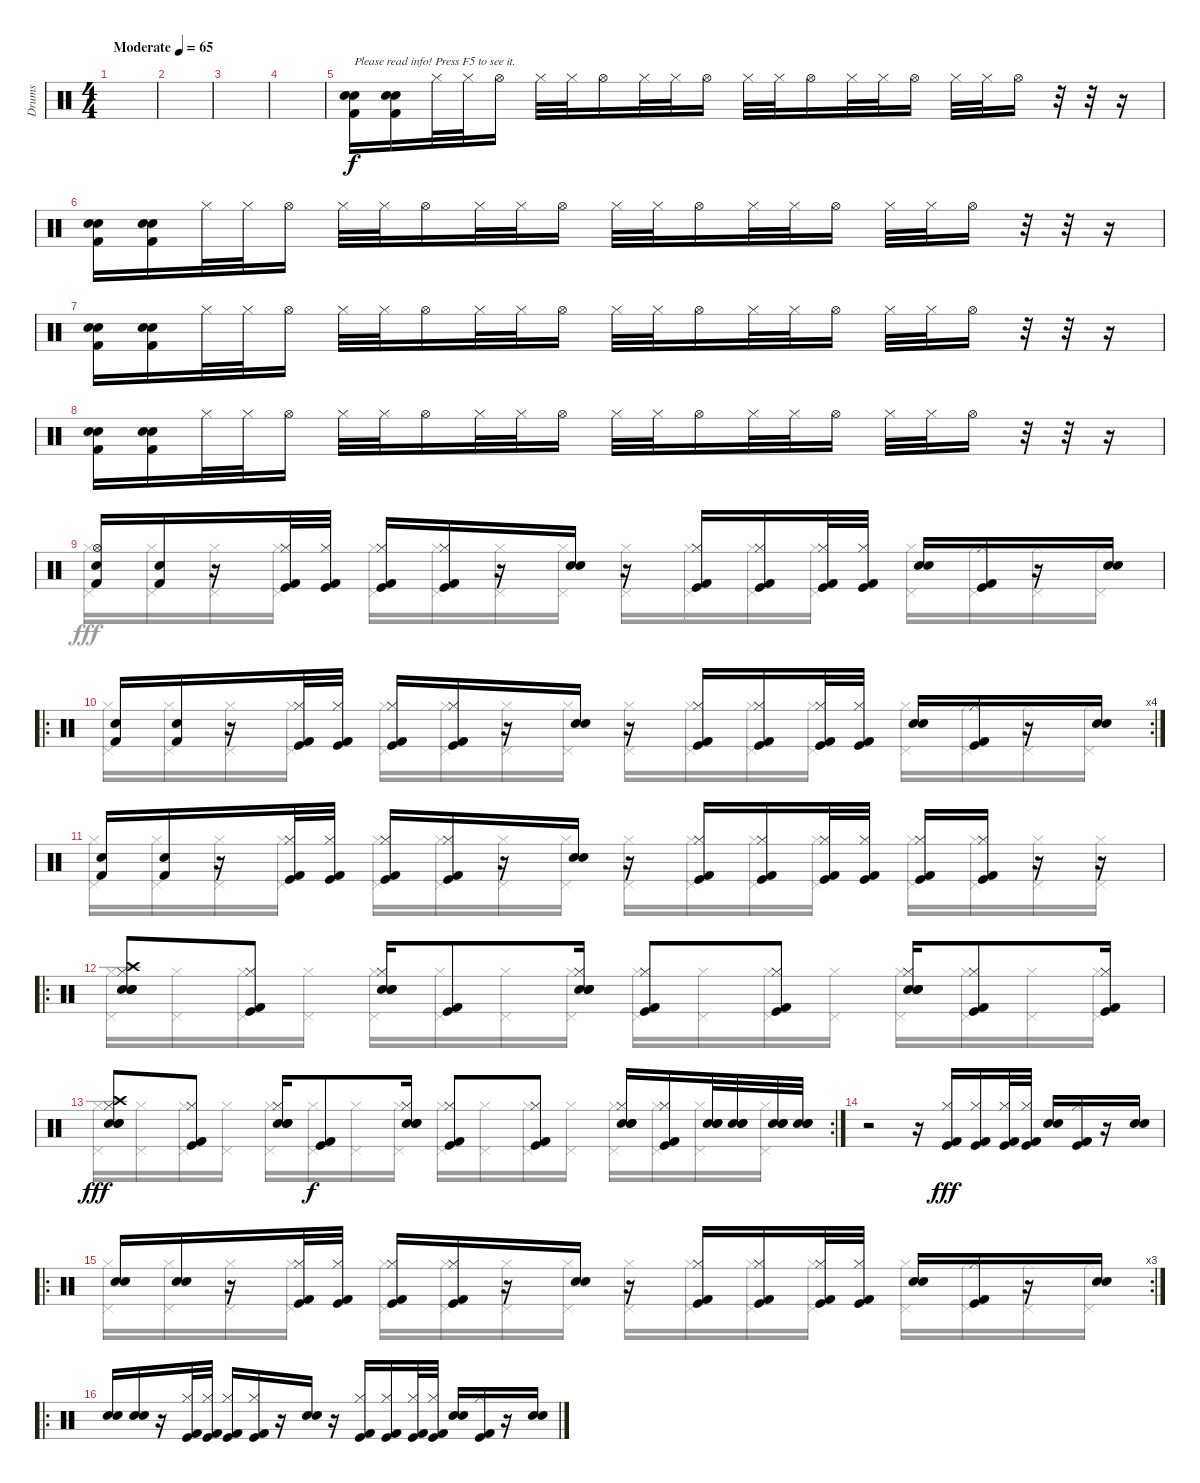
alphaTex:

\track ("Drums" "Drums") {instrument percussion}
\staff {score}
\articulation defaults
\voice
\ts (4 4)
\tempo (65 "Moderate")
\clef neutral
\ks c
|
|
|
|
("Kick (hit) 2" "Electric Snare (hit)" "Snare (hit) 2").16{txt "Please read info! Press F5 to see it."} ("Kick (hit) 2" "Electric Snare (hit)" "Snare (hit) 2").16 "Hi-Hat (closed)".32 "Hi-Hat (closed)".32 "Hi-Hat (open)".16 "Hi-Hat (closed)".32 "Hi-Hat (closed)".32 "Hi-Hat (open)".16 "Hi-Hat (closed)".32 "Hi-Hat (closed)".32 "Hi-Hat (open)".16 "Hi-Hat (closed)".32 "Hi-Hat (closed)".32 "Hi-Hat (open)".16 "Hi-Hat (closed)".32 "Hi-Hat (closed)".32 "Hi-Hat (open)".16 "Hi-Hat (closed)".32 "Hi-Hat (closed)".32 "Hi-Hat (open)".16 r.32 r.32 r.16 |
("Kick (hit) 2" "Electric Snare (hit)" "Snare (hit) 2").16 ("Kick (hit) 2" "Electric Snare (hit)" "Snare (hit) 2").16 "Hi-Hat (closed)".32 "Hi-Hat (closed)".32 "Hi-Hat (open)".16 "Hi-Hat (closed)".32 "Hi-Hat (closed)".32 "Hi-Hat (open)".16 "Hi-Hat (closed)".32 "Hi-Hat (closed)".32 "Hi-Hat (open)".16 "Hi-Hat (closed)".32 "Hi-Hat (closed)".32 "Hi-Hat (open)".16 "Hi-Hat (closed)".32 "Hi-Hat (closed)".32 "Hi-Hat (open)".16 "Hi-Hat (closed)".32 "Hi-Hat (closed)".32 "Hi-Hat (open)".16 r.32 r.32 r.16 |
("Kick (hit) 2" "Electric Snare (hit)" "Snare (hit) 2").16 ("Kick (hit) 2" "Electric Snare (hit)" "Snare (hit) 2").16 "Hi-Hat (closed)".32 "Hi-Hat (closed)".32 "Hi-Hat (open)".16 "Hi-Hat (closed)".32 "Hi-Hat (closed)".32 "Hi-Hat (open)".16 "Hi-Hat (closed)".32 "Hi-Hat (closed)".32 "Hi-Hat (open)".16 "Hi-Hat (closed)".32 "Hi-Hat (closed)".32 "Hi-Hat (open)".16 "Hi-Hat (closed)".32 "Hi-Hat (closed)".32 "Hi-Hat (open)".16 "Hi-Hat (closed)".32 "Hi-Hat (closed)".32 "Hi-Hat (open)".16 r.32 r.32 r.16 |
("Kick (hit) 2" "Electric Snare (hit)" "Snare (hit) 2").16 ("Kick (hit) 2" "Electric Snare (hit)" "Snare (hit) 2").16 "Hi-Hat (closed)".32 "Hi-Hat (closed)".32 "Hi-Hat (open)".16 "Hi-Hat (closed)".32 "Hi-Hat (closed)".32 "Hi-Hat (open)".16 "Hi-Hat (closed)".32 "Hi-Hat (closed)".32 "Hi-Hat (open)".16 "Hi-Hat (closed)".32 "Hi-Hat (closed)".32 "Hi-Hat (open)".16 "Hi-Hat (closed)".32 "Hi-Hat (closed)".32 "Hi-Hat (open)".16 "Hi-Hat (closed)".32 "Hi-Hat (closed)".32 "Hi-Hat (open)".16 r.32 r.32 r.16 |
("Kick (hit) 2" "Electric Snare (hit)" "Hi-Hat (open)").16 ("Kick (hit) 2" "Electric Snare (hit)").16 r.16 ("Hi-Hat (closed)" "Kick (hit)" "Kick (hit) 2").32 ("Hi-Hat (closed)" "Kick (hit)" "Kick (hit) 2").32 ("Hi-Hat (closed)" "Kick (hit)" "Kick (hit) 2").16 ("Hi-Hat (closed)" "Kick (hit)" "Kick (hit) 2").16 r.16 ("Snare (hit) 2" "Electric Snare (hit)").16 r.16 ("Hi-Hat (closed)" "Kick (hit)" "Kick (hit) 2").16 ("Hi-Hat (closed)" "Kick (hit)" "Kick (hit) 2").16 ("Hi-Hat (closed)" "Kick (hit)" "Kick (hit) 2").32 ("Hi-Hat (closed)" "Kick (hit)" "Kick (hit) 2").32 ("Snare (hit) 2" "Electric Snare (hit)").16 ("Hi-Hat (closed)" "Kick (hit)" "Kick (hit) 2").16 r.16 ("Snare (hit) 2" "Electric Snare (hit)").16 |
\ro
\rc 4
("Kick (hit) 2" "Electric Snare (hit)").16 ("Kick (hit) 2" "Electric Snare (hit)").16 r.16 ("Hi-Hat (closed)" "Kick (hit)" "Kick (hit) 2").32 ("Hi-Hat (closed)" "Kick (hit)" "Kick (hit) 2").32 ("Hi-Hat (closed)" "Kick (hit)" "Kick (hit) 2").16 ("Hi-Hat (closed)" "Kick (hit)" "Kick (hit) 2").16 r.16 ("Snare (hit) 2" "Electric Snare (hit)").16 r.16 ("Hi-Hat (closed)" "Kick (hit)" "Kick (hit) 2").16 ("Hi-Hat (closed)" "Kick (hit)" "Kick (hit) 2").16 ("Hi-Hat (closed)" "Kick (hit)" "Kick (hit) 2").32 ("Hi-Hat (closed)" "Kick (hit)" "Kick (hit) 2").32 ("Snare (hit) 2" "Electric Snare (hit)").16 ("Hi-Hat (closed)" "Kick (hit)" "Kick (hit) 2").16 r.16 ("Snare (hit) 2" "Electric Snare (hit)").16 |
("Kick (hit) 2" "Electric Snare (hit)").16 ("Kick (hit) 2" "Electric Snare (hit)").16 r.16 ("Hi-Hat (closed)" "Kick (hit)" "Kick (hit) 2").32 ("Hi-Hat (closed)" "Kick (hit)" "Kick (hit) 2").32 ("Hi-Hat (closed)" "Kick (hit)" "Kick (hit) 2").16 ("Hi-Hat (closed)" "Kick (hit)" "Kick (hit) 2").16 r.16 ("Snare (hit) 2" "Electric Snare (hit)").16 r.16 ("Hi-Hat (closed)" "Kick (hit)" "Kick (hit) 2").16 ("Hi-Hat (closed)" "Kick (hit)" "Kick (hit) 2").16 ("Hi-Hat (closed)" "Kick (hit)" "Kick (hit) 2").32 ("Hi-Hat (closed)" "Kick (hit)" "Kick (hit) 2").32 ("Hi-Hat (closed)" "Kick (hit)" "Kick (hit) 2").16 ("Hi-Hat (closed)" "Kick (hit)" "Kick (hit) 2").16 r.16 r.16 |
\ro
("Hi-Hat (closed)" "Crash high (hit)" "Hand Clap (hit)" "Electric Snare (hit)" "Snare (hit) 2").8 ("Hi-Hat (closed)" "Kick (hit)" "Kick (hit) 2").8 ("Hi-Hat (closed)" "Hand Clap (hit)" "Electric Snare (hit)" "Snare (hit) 2").16 ("Kick (hit)" "Kick (hit) 2").8{dy f} ("Hi-Hat (closed)" "Hand Clap (hit)" "Electric Snare (hit)" "Snare (hit) 2").16 ("Hi-Hat (closed)" "Kick (hit)" "Kick (hit) 2").8 ("Hi-Hat (closed)" "Kick (hit)" "Kick (hit) 2").8 ("Hi-Hat (closed)" "Hand Clap (hit)" "Electric Snare (hit)" "Snare (hit) 2").16 ("Hi-Hat (closed)" "Kick (hit) 2" "Kick (hit)").8 ("Hi-Hat (closed)" "Kick (hit) 2" "Kick (hit)").16 |
\rc 2
("Hi-Hat (closed)" "Crash high (hit)" "Hand Clap (hit)" "Electric Snare (hit)" "Snare (hit) 2").8{dy fff} ("Hi-Hat (closed)" "Kick (hit)" "Kick (hit) 2").8 ("Hi-Hat (closed)" "Hand Clap (hit)" "Electric Snare (hit)" "Snare (hit) 2").16 ("Kick (hit)" "Kick (hit) 2").8{dy f} ("Hi-Hat (closed)" "Hand Clap (hit)" "Electric Snare (hit)" "Snare (hit) 2").16 ("Hi-Hat (closed)" "Kick (hit)" "Kick (hit) 2").8 ("Hi-Hat (closed)" "Kick (hit)" "Kick (hit) 2").8 ("Hi-Hat (closed)" "Hand Clap (hit)" "Electric Snare (hit)" "Snare (hit) 2").16 ("Hi-Hat (closed)" "Kick (hit) 2" "Kick (hit)").16 ("Hand Clap (hit)" "Electric Snare (hit)" "Snare (hit) 2").32 ("Hand Clap (hit)" "Electric Snare (hit)" "Snare (hit) 2").32 ("Hand Clap (hit)" "Electric Snare (hit)" "Snare (hit) 2").32 ("Hand Clap (hit)" "Electric Snare (hit)" "Snare (hit) 2").32 |
r.2 r.16 ("Hi-Hat (closed)" "Kick (hit)" "Kick (hit) 2").16{dy fff} ("Hi-Hat (closed)" "Kick (hit)" "Kick (hit) 2").16 ("Hi-Hat (closed)" "Kick (hit)" "Kick (hit) 2").32 ("Hi-Hat (closed)" "Kick (hit)" "Kick (hit) 2").32 ("Snare (hit) 2" "Electric Snare (hit)").16 ("Hi-Hat (closed)" "Kick (hit)" "Kick (hit) 2").16 r.16 ("Snare (hit) 2" "Electric Snare (hit)").16 |
\ro
\rc 3
("Snare (hit) 2" "Electric Snare (hit)").16 ("Snare (hit) 2" "Electric Snare (hit)").16 r.16 ("Hi-Hat (closed)" "Kick (hit)" "Kick (hit) 2").32 ("Hi-Hat (closed)" "Kick (hit)" "Kick (hit) 2").32 ("Hi-Hat (closed)" "Kick (hit)" "Kick (hit) 2").16 ("Hi-Hat (closed)" "Kick (hit)" "Kick (hit) 2").16 r.16 ("Snare (hit) 2" "Electric Snare (hit)").16 r.16 ("Hi-Hat (closed)" "Kick (hit)" "Kick (hit) 2").16 ("Hi-Hat (closed)" "Kick (hit)" "Kick (hit) 2").16 ("Hi-Hat (closed)" "Kick (hit)" "Kick (hit) 2").32 ("Hi-Hat (closed)" "Kick (hit)" "Kick (hit) 2").32 ("Snare (hit) 2" "Electric Snare (hit)").16 ("Hi-Hat (closed)" "Kick (hit)" "Kick (hit) 2").16 r.16 ("Snare (hit) 2" "Electric Snare (hit)").16 |
\ro
("Snare (hit) 2" "Electric Snare (hit)").16 ("Snare (hit) 2" "Electric Snare (hit)").16 r.16 ("Hi-Hat (closed)" "Kick (hit)" "Kick (hit) 2").32 ("Hi-Hat (closed)" "Kick (hit)" "Kick (hit) 2").32 ("Hi-Hat (closed)" "Kick (hit)" "Kick (hit) 2").16 ("Hi-Hat (closed)" "Kick (hit)" "Kick (hit) 2").16 r.16 ("Snare (hit) 2" "Electric Snare (hit)").16 r.16 ("Hi-Hat (closed)" "Kick (hit)" "Kick (hit) 2").16 ("Hi-Hat (closed)" "Kick (hit)" "Kick (hit) 2").16 ("Hi-Hat (closed)" "Kick (hit)" "Kick (hit) 2").32 ("Hi-Hat (closed)" "Kick (hit)" "Kick (hit) 2").32 ("Snare (hit) 2" "Electric Snare (hit)").16 ("Hi-Hat (closed)" "Kick (hit)" "Kick (hit) 2").16 r.16 ("Snare (hit) 2" "Electric Snare (hit)").16
\voice
\clef neutral
\ottava regular
\simile none
\ks c
|
|
|
|
|
|
|
|
("Hi-Hat (closed)" "Pedal Hi-Hat (hit)").16 ("Hi-Hat (closed)" "Pedal Hi-Hat (hit)").16 ("Hi-Hat (closed)" "Pedal Hi-Hat (hit)").16 ("Hi-Hat (closed)" "Pedal Hi-Hat (hit)").16 ("Hi-Hat (closed)" "Pedal Hi-Hat (hit)").16 ("Hi-Hat (closed)" "Pedal Hi-Hat (hit)").16 ("Hi-Hat (closed)" "Pedal Hi-Hat (hit)").16 ("Hi-Hat (closed)" "Pedal Hi-Hat (hit)").16 ("Hi-Hat (closed)" "Pedal Hi-Hat (hit)").16 ("Hi-Hat (closed)" "Pedal Hi-Hat (hit)").16 ("Hi-Hat (closed)" "Pedal Hi-Hat (hit)").16 ("Hi-Hat (closed)" "Pedal Hi-Hat (hit)").16 ("Hi-Hat (closed)" "Pedal Hi-Hat (hit)").16 ("Hi-Hat (closed)" "Pedal Hi-Hat (hit)").16 ("Hi-Hat (closed)" "Pedal Hi-Hat (hit)").16 ("Hi-Hat (closed)" "Pedal Hi-Hat (hit)").16 |
("Hi-Hat (closed)" "Pedal Hi-Hat (hit)").16 ("Hi-Hat (closed)" "Pedal Hi-Hat (hit)").16 ("Hi-Hat (closed)" "Pedal Hi-Hat (hit)").16 ("Hi-Hat (closed)" "Pedal Hi-Hat (hit)").16 ("Hi-Hat (closed)" "Pedal Hi-Hat (hit)").16 ("Hi-Hat (closed)" "Pedal Hi-Hat (hit)").16 ("Hi-Hat (closed)" "Pedal Hi-Hat (hit)").16 ("Hi-Hat (closed)" "Pedal Hi-Hat (hit)").16 ("Hi-Hat (closed)" "Pedal Hi-Hat (hit)").16 ("Hi-Hat (closed)" "Pedal Hi-Hat (hit)").16 ("Hi-Hat (closed)" "Pedal Hi-Hat (hit)").16 ("Hi-Hat (closed)" "Pedal Hi-Hat (hit)").16 ("Hi-Hat (closed)" "Pedal Hi-Hat (hit)").16 ("Hi-Hat (closed)" "Pedal Hi-Hat (hit)").16 ("Hi-Hat (closed)" "Pedal Hi-Hat (hit)").16 ("Hi-Hat (closed)" "Pedal Hi-Hat (hit)").16 |
("Hi-Hat (closed)" "Pedal Hi-Hat (hit)").16 ("Hi-Hat (closed)" "Pedal Hi-Hat (hit)").16 ("Hi-Hat (closed)" "Pedal Hi-Hat (hit)").16 ("Hi-Hat (closed)" "Pedal Hi-Hat (hit)").16 ("Hi-Hat (closed)" "Pedal Hi-Hat (hit)").16 ("Hi-Hat (closed)" "Pedal Hi-Hat (hit)").16 ("Hi-Hat (closed)" "Pedal Hi-Hat (hit)").16 ("Hi-Hat (closed)" "Pedal Hi-Hat (hit)").16 ("Hi-Hat (closed)" "Pedal Hi-Hat (hit)").16 ("Hi-Hat (closed)" "Pedal Hi-Hat (hit)").16 ("Hi-Hat (closed)" "Pedal Hi-Hat (hit)").16 ("Hi-Hat (closed)" "Pedal Hi-Hat (hit)").16 ("Hi-Hat (closed)" "Pedal Hi-Hat (hit)").16 ("Hi-Hat (closed)" "Pedal Hi-Hat (hit)").16 ("Hi-Hat (closed)" "Pedal Hi-Hat (hit)").16 ("Hi-Hat (closed)" "Pedal Hi-Hat (hit)").16 |
("Hi-Hat (closed)" "Pedal Hi-Hat (hit)").16 ("Hi-Hat (closed)" "Pedal Hi-Hat (hit)").16 ("Hi-Hat (closed)" "Pedal Hi-Hat (hit)").16 ("Hi-Hat (closed)" "Pedal Hi-Hat (hit)").16 ("Hi-Hat (closed)" "Pedal Hi-Hat (hit)").16 ("Hi-Hat (closed)" "Pedal Hi-Hat (hit)").16 ("Hi-Hat (closed)" "Pedal Hi-Hat (hit)").16 ("Hi-Hat (closed)" "Pedal Hi-Hat (hit)").16 ("Hi-Hat (closed)" "Pedal Hi-Hat (hit)").16 ("Hi-Hat (closed)" "Pedal Hi-Hat (hit)").16 ("Hi-Hat (closed)" "Pedal Hi-Hat (hit)").16 ("Hi-Hat (closed)" "Pedal Hi-Hat (hit)").16 ("Hi-Hat (closed)" "Pedal Hi-Hat (hit)").16 ("Hi-Hat (closed)" "Pedal Hi-Hat (hit)").16 ("Hi-Hat (closed)" "Pedal Hi-Hat (hit)").16 ("Hi-Hat (closed)" "Pedal Hi-Hat (hit)").16 |
("Hi-Hat (closed)" "Pedal Hi-Hat (hit)").16 ("Hi-Hat (closed)" "Pedal Hi-Hat (hit)").16 ("Hi-Hat (closed)" "Pedal Hi-Hat (hit)").16 ("Hi-Hat (closed)" "Pedal Hi-Hat (hit)").16 ("Hi-Hat (closed)" "Pedal Hi-Hat (hit)").16 ("Hi-Hat (closed)" "Pedal Hi-Hat (hit)").16 ("Hi-Hat (closed)" "Pedal Hi-Hat (hit)").16 ("Hi-Hat (closed)" "Pedal Hi-Hat (hit)").16 ("Hi-Hat (closed)" "Pedal Hi-Hat (hit)").16 ("Hi-Hat (closed)" "Pedal Hi-Hat (hit)").16 ("Hi-Hat (closed)" "Pedal Hi-Hat (hit)").16 ("Hi-Hat (closed)" "Pedal Hi-Hat (hit)").16 ("Hi-Hat (closed)" "Pedal Hi-Hat (hit)").16 ("Hi-Hat (closed)" "Pedal Hi-Hat (hit)").16 ("Hi-Hat (closed)" "Pedal Hi-Hat (hit)").16 ("Hi-Hat (closed)" "Pedal Hi-Hat (hit)").16 |
|
("Hi-Hat (closed)" "Pedal Hi-Hat (hit)").16 ("Hi-Hat (closed)" "Pedal Hi-Hat (hit)").16 ("Hi-Hat (closed)" "Pedal Hi-Hat (hit)").16 ("Hi-Hat (closed)" "Pedal Hi-Hat (hit)").16 ("Hi-Hat (closed)" "Pedal Hi-Hat (hit)").16 ("Hi-Hat (closed)" "Pedal Hi-Hat (hit)").16 ("Hi-Hat (closed)" "Pedal Hi-Hat (hit)").16 ("Hi-Hat (closed)" "Pedal Hi-Hat (hit)").16 ("Hi-Hat (closed)" "Pedal Hi-Hat (hit)").16 ("Hi-Hat (closed)" "Pedal Hi-Hat (hit)").16 ("Hi-Hat (closed)" "Pedal Hi-Hat (hit)").16 ("Hi-Hat (closed)" "Pedal Hi-Hat (hit)").16 ("Hi-Hat (closed)" "Pedal Hi-Hat (hit)").16 ("Hi-Hat (closed)" "Pedal Hi-Hat (hit)").16 ("Hi-Hat (closed)" "Pedal Hi-Hat (hit)").16 ("Hi-Hat (closed)" "Pedal Hi-Hat (hit)").16 |
